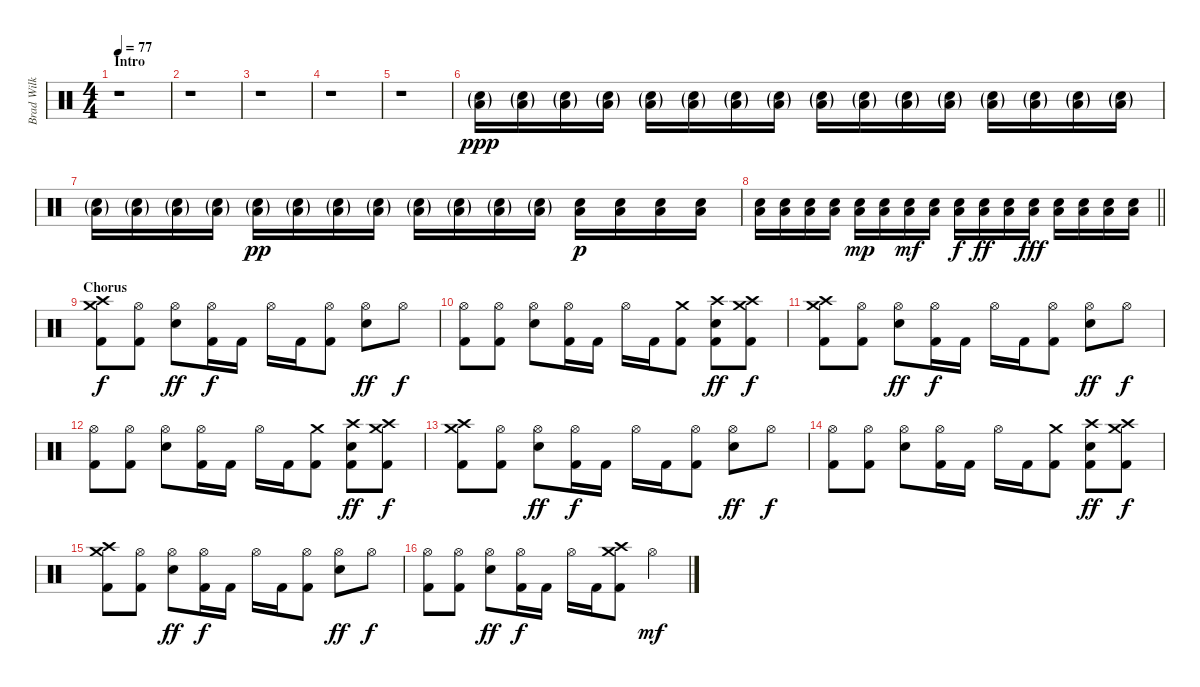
\track ("Brad Wilk / Drums" "Brad Wilk ") {instrument percussion}
\staff {score}
\articulation defaults
\ts (4 4)
\section ("" "Intro")
\tempo 77
\clef neutral
\ks c
r.1{dy ppp} |
r.1 |
r.1 |
r.1 |
r.1 |
("Snare (hit) 2"{g} "Low Floor Tom (hit)"{g}).16{volume 11} ("Snare (hit) 2"{g} "Low Floor Tom (hit)"{g}).16 ("Snare (hit) 2"{g} "Low Floor Tom (hit)"{g}).16 ("Snare (hit) 2"{g} "Low Floor Tom (hit)"{g}).16 ("Snare (hit) 2"{g} "Low Floor Tom (hit)"{g}).16 ("Snare (hit) 2"{g} "Low Floor Tom (hit)"{g}).16 ("Snare (hit) 2"{g} "Low Floor Tom (hit)"{g}).16 ("Snare (hit) 2"{g} "Low Floor Tom (hit)"{g}).16 ("Snare (hit) 2"{g} "Low Floor Tom (hit)"{g}).16 ("Snare (hit) 2"{g} "Low Floor Tom (hit)"{g}).16 ("Snare (hit) 2"{g} "Low Floor Tom (hit)"{g}).16 ("Snare (hit) 2"{g} "Low Floor Tom (hit)"{g}).16 ("Snare (hit) 2"{g} "Low Floor Tom (hit)"{g}).16 ("Snare (hit) 2"{g} "Low Floor Tom (hit)"{g}).16 ("Snare (hit) 2"{g} "Low Floor Tom (hit)"{g}).16 ("Snare (hit) 2"{g} "Low Floor Tom (hit)"{g}).16 |
("Snare (hit) 2"{g} "Low Floor Tom (hit)"{g}).16 ("Snare (hit) 2"{g} "Low Floor Tom (hit)"{g}).16 ("Snare (hit) 2"{g} "Low Floor Tom (hit)"{g}).16 ("Snare (hit) 2"{g} "Low Floor Tom (hit)"{g}).16 ("Snare (hit) 2"{g} "Low Floor Tom (hit)"{g}).16{dy pp} ("Snare (hit) 2"{g} "Low Floor Tom (hit)"{g}).16 ("Snare (hit) 2"{g} "Low Floor Tom (hit)"{g}).16 ("Snare (hit) 2"{g} "Low Floor Tom (hit)"{g}).16 ("Snare (hit) 2"{g} "Low Floor Tom (hit)"{g}).16 ("Snare (hit) 2"{g} "Low Floor Tom (hit)"{g}).16 ("Snare (hit) 2"{g} "Low Floor Tom (hit)"{g}).16 ("Snare (hit) 2"{g} "Low Floor Tom (hit)"{g}).16 ("Snare (hit) 2" "Low Floor Tom (hit)").16{dy p volume 13} ("Snare (hit) 2" "Low Floor Tom (hit)").16 ("Snare (hit) 2" "Low Floor Tom (hit)").16 ("Snare (hit) 2" "Low Floor Tom (hit)").16 |
\barLineRight lightlight
("Snare (hit) 2" "Low Floor Tom (hit)").16 ("Snare (hit) 2" "Low Floor Tom (hit)").16 ("Snare (hit) 2" "Low Floor Tom (hit)").16{volume 14} ("Snare (hit) 2" "Low Floor Tom (hit)").16 ("Snare (hit) 2" "Low Floor Tom (hit)").16{dy mp} ("Snare (hit) 2" "Low Floor Tom (hit)").16 ("Snare (hit) 2" "Low Floor Tom (hit)").16{dy mf} ("Snare (hit) 2" "Low Floor Tom (hit)").16{volume 16} ("Snare (hit) 2" "Low Floor Tom (hit)").16{dy f} ("Snare (hit) 2" "Low Floor Tom (hit)").16{dy ff} ("Snare (hit) 2" "Low Floor Tom (hit)").16 ("Snare (hit) 2" "Low Floor Tom (hit)").16{dy fff} ("Snare (hit) 2" "Low Floor Tom (hit)").16 ("Snare (hit) 2" "Low Floor Tom (hit)").16 ("Snare (hit) 2" "Low Floor Tom (hit)").16 ("Snare (hit) 2" "Low Floor Tom (hit)").16 |
\section ("" "Chorus")
("Crash medium (hit)" "Crash high (hit)" "Kick (hit) 2").8{dy f} ("Hi-Hat (open)" "Kick (hit) 2").8 ("Hi-Hat (open)" "Snare (hit) 2").8{dy ff} ("Hi-Hat (open)" "Kick (hit) 2").16{dy f} "Kick (hit) 2".16 "Hi-Hat (open)".16 "Kick (hit) 2".16 ("Hi-Hat (open)" "Kick (hit) 2").8 ("Hi-Hat (open)" "Snare (hit) 2").8{dy ff} "Hi-Hat (open)".8{dy f} |
("Hi-Hat (open)" "Kick (hit) 2").8 ("Hi-Hat (open)" "Kick (hit) 2").8 ("Hi-Hat (open)" "Snare (hit) 2").8 ("Hi-Hat (open)" "Kick (hit) 2").16 "Kick (hit) 2".16 "Hi-Hat (open)".16 "Kick (hit) 2".16 ("Crash medium (hit)" "Kick (hit) 2").8 ("Crash high (hit)" "Snare (hit) 2" "Kick (hit) 2").8{dy ff} ("Crash medium (hit)" "Crash high (hit)" "Kick (hit) 2").8{dy f} |
("Crash medium (hit)" "Crash high (hit)" "Kick (hit) 2").8 ("Hi-Hat (open)" "Kick (hit) 2").8 ("Hi-Hat (open)" "Snare (hit) 2").8{dy ff} ("Hi-Hat (open)" "Kick (hit) 2").16{dy f} "Kick (hit) 2".16 "Hi-Hat (open)".16 "Kick (hit) 2".16 ("Hi-Hat (open)" "Kick (hit) 2").8 ("Hi-Hat (open)" "Snare (hit) 2").8{dy ff} "Hi-Hat (open)".8{dy f} |
("Hi-Hat (open)" "Kick (hit) 2").8 ("Hi-Hat (open)" "Kick (hit) 2").8 ("Hi-Hat (open)" "Snare (hit) 2").8 ("Hi-Hat (open)" "Kick (hit) 2").16 "Kick (hit) 2".16 "Hi-Hat (open)".16 "Kick (hit) 2".16 ("Crash medium (hit)" "Kick (hit) 2").8 ("Crash high (hit)" "Snare (hit) 2" "Kick (hit) 2").8{dy ff} ("Crash medium (hit)" "Crash high (hit)" "Kick (hit) 2").8{dy f} |
("Crash medium (hit)" "Crash high (hit)" "Kick (hit) 2").8 ("Hi-Hat (open)" "Kick (hit) 2").8 ("Hi-Hat (open)" "Snare (hit) 2").8{dy ff} ("Hi-Hat (open)" "Kick (hit) 2").16{dy f} "Kick (hit) 2".16 "Hi-Hat (open)".16 "Kick (hit) 2".16 ("Hi-Hat (open)" "Kick (hit) 2").8 ("Hi-Hat (open)" "Snare (hit) 2").8{dy ff} "Hi-Hat (open)".8{dy f} |
("Hi-Hat (open)" "Kick (hit) 2").8 ("Hi-Hat (open)" "Kick (hit) 2").8 ("Hi-Hat (open)" "Snare (hit) 2").8 ("Hi-Hat (open)" "Kick (hit) 2").16 "Kick (hit) 2".16 "Hi-Hat (open)".16 "Kick (hit) 2".16 ("Crash medium (hit)" "Kick (hit) 2").8 ("Crash high (hit)" "Snare (hit) 2" "Kick (hit) 2").8{dy ff} ("Crash medium (hit)" "Crash high (hit)" "Kick (hit) 2").8{dy f} |
("Crash medium (hit)" "Crash high (hit)" "Kick (hit) 2").8 ("Hi-Hat (open)" "Kick (hit) 2").8 ("Hi-Hat (open)" "Snare (hit) 2").8{dy ff} ("Hi-Hat (open)" "Kick (hit) 2").16{dy f} "Kick (hit) 2".16 "Hi-Hat (open)".16 "Kick (hit) 2".16 ("Hi-Hat (open)" "Kick (hit) 2").8 ("Hi-Hat (open)" "Snare (hit) 2").8{dy ff} "Hi-Hat (open)".8{dy f} |
("Hi-Hat (open)" "Kick (hit) 2").8 ("Hi-Hat (open)" "Kick (hit) 2").8 ("Hi-Hat (open)" "Snare (hit) 2").8{dy ff} ("Hi-Hat (open)" "Kick (hit) 2").16{dy f} "Kick (hit) 2".16 "Hi-Hat (open)".16 "Kick (hit) 2".16 ("Crash medium (hit)" "Crash high (hit)" "Kick (hit) 2").8 "Hi-Hat (open)".4{dy mf}
